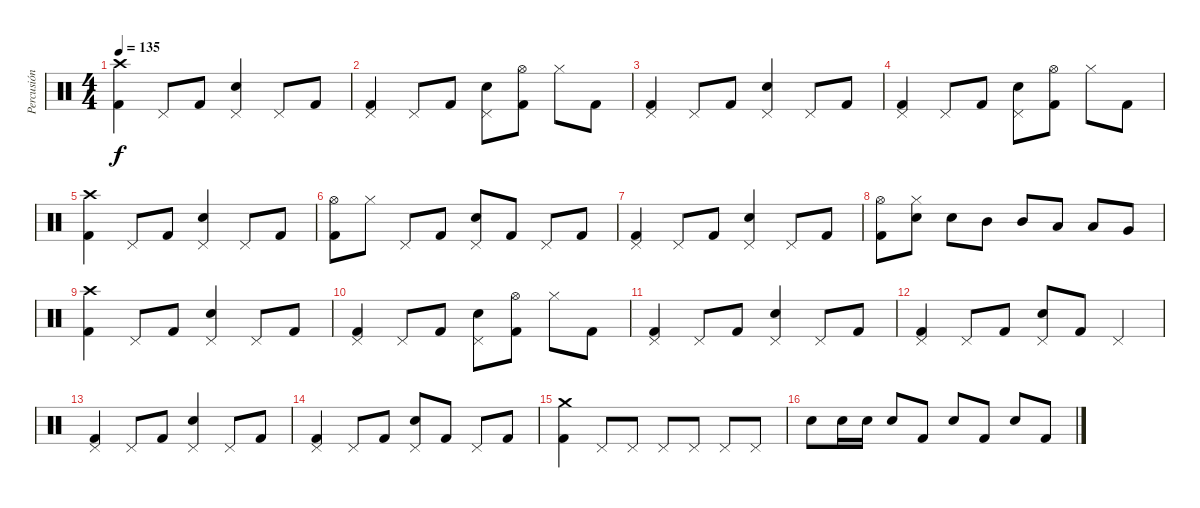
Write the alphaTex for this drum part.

\track ("Percusión" "Percusión") {instrument percussion}
\staff {score}
\articulation defaults
\ts (4 4)
\tempo 135
\clef neutral
\ks c
("Crash high (hit)" "Kick (hit) 2").4{dy f} "Pedal Hi-Hat (hit)".8 "Kick (hit) 2".8 ("Pedal Hi-Hat (hit)" "Electric Snare (hit)").4 "Pedal Hi-Hat (hit)".8 "Kick (hit) 2".8 |
("Pedal Hi-Hat (hit)" "Kick (hit) 2").4 "Pedal Hi-Hat (hit)".8 "Kick (hit) 2".8 ("Pedal Hi-Hat (hit)" "Electric Snare (hit)").8 ("Hi-Hat (open)" "Kick (hit) 2").8 "Hi-Hat (closed)".8 "Kick (hit) 2".8 |
("Pedal Hi-Hat (hit)" "Kick (hit) 2").4 "Pedal Hi-Hat (hit)".8 "Kick (hit) 2".8 ("Pedal Hi-Hat (hit)" "Electric Snare (hit)").4 "Pedal Hi-Hat (hit)".8 "Kick (hit) 2".8 |
("Pedal Hi-Hat (hit)" "Kick (hit) 2").4 "Pedal Hi-Hat (hit)".8 "Kick (hit) 2".8 ("Pedal Hi-Hat (hit)" "Electric Snare (hit)").8 ("Hi-Hat (open)" "Kick (hit) 2").8 "Hi-Hat (closed)".8 "Kick (hit) 2".8 |
("Crash high (hit)" "Kick (hit) 2").4 "Pedal Hi-Hat (hit)".8 "Kick (hit) 2".8 ("Pedal Hi-Hat (hit)" "Electric Snare (hit)").4 "Pedal Hi-Hat (hit)".8 "Kick (hit) 2".8 |
("Hi-Hat (open)" "Kick (hit) 2").8 "Hi-Hat (closed)".8 "Pedal Hi-Hat (hit)".8 "Kick (hit) 2".8 ("Pedal Hi-Hat (hit)" "Electric Snare (hit)").8 "Kick (hit) 2".8 "Pedal Hi-Hat (hit)".8 "Kick (hit) 2".8 |
("Pedal Hi-Hat (hit)" "Kick (hit) 2").4 "Pedal Hi-Hat (hit)".8 "Kick (hit) 2".8 ("Pedal Hi-Hat (hit)" "Electric Snare (hit)").4 "Pedal Hi-Hat (hit)".8 "Kick (hit) 2".8 |
("Hi-Hat (open)" "Kick (hit) 2").8 ("Hi-Hat (closed)" "Electric Snare (hit)").8 "Electric Snare (hit)".8 "Mid Tom (hit)".8 "Mid Tom (hit)".8 "Low Tom (hit)".8 "Low Tom (hit)".8 "Very Low Tom (hit)".8 |
("Crash high (hit)" "Kick (hit) 2").4 "Pedal Hi-Hat (hit)".8 "Kick (hit) 2".8 ("Pedal Hi-Hat (hit)" "Electric Snare (hit)").4 "Pedal Hi-Hat (hit)".8 "Kick (hit) 2".8 |
("Pedal Hi-Hat (hit)" "Kick (hit) 2").4 "Pedal Hi-Hat (hit)".8 "Kick (hit) 2".8 ("Pedal Hi-Hat (hit)" "Electric Snare (hit)").8 ("Hi-Hat (open)" "Kick (hit) 2").8 "Hi-Hat (closed)".8 "Kick (hit) 2".8 |
("Pedal Hi-Hat (hit)" "Kick (hit) 2").4 "Pedal Hi-Hat (hit)".8 "Kick (hit) 2".8 ("Pedal Hi-Hat (hit)" "Electric Snare (hit)").4 "Pedal Hi-Hat (hit)".8 "Kick (hit) 2".8 |
("Pedal Hi-Hat (hit)" "Kick (hit) 2").4 "Pedal Hi-Hat (hit)".8 "Kick (hit) 2".8 ("Pedal Hi-Hat (hit)" "Electric Snare (hit)").8 "Kick (hit) 2".8 "Pedal Hi-Hat (hit)".4 |
("Pedal Hi-Hat (hit)" "Kick (hit) 2").4 "Pedal Hi-Hat (hit)".8 "Kick (hit) 2".8 ("Pedal Hi-Hat (hit)" "Electric Snare (hit)").4 "Pedal Hi-Hat (hit)".8 "Kick (hit) 2".8 |
("Pedal Hi-Hat (hit)" "Kick (hit) 2").4 "Pedal Hi-Hat (hit)".8 "Kick (hit) 2".8 ("Pedal Hi-Hat (hit)" "Electric Snare (hit)").8 "Kick (hit) 2".8 "Pedal Hi-Hat (hit)".8 "Kick (hit) 2".8 |
("Crash medium (hit)" "Kick (hit) 2").4 "Pedal Hi-Hat (hit)".8 "Pedal Hi-Hat (hit)".8 "Pedal Hi-Hat (hit)".8 "Pedal Hi-Hat (hit)".8 "Pedal Hi-Hat (hit)".8 "Pedal Hi-Hat (hit)".8 |
"Electric Snare (hit)".8 "Electric Snare (hit)".16 "Electric Snare (hit)".16 "Electric Snare (hit)".8 "Kick (hit) 2".8 "Electric Snare (hit)".8 "Kick (hit) 2".8 "Electric Snare (hit)".8 "Kick (hit) 2".8
